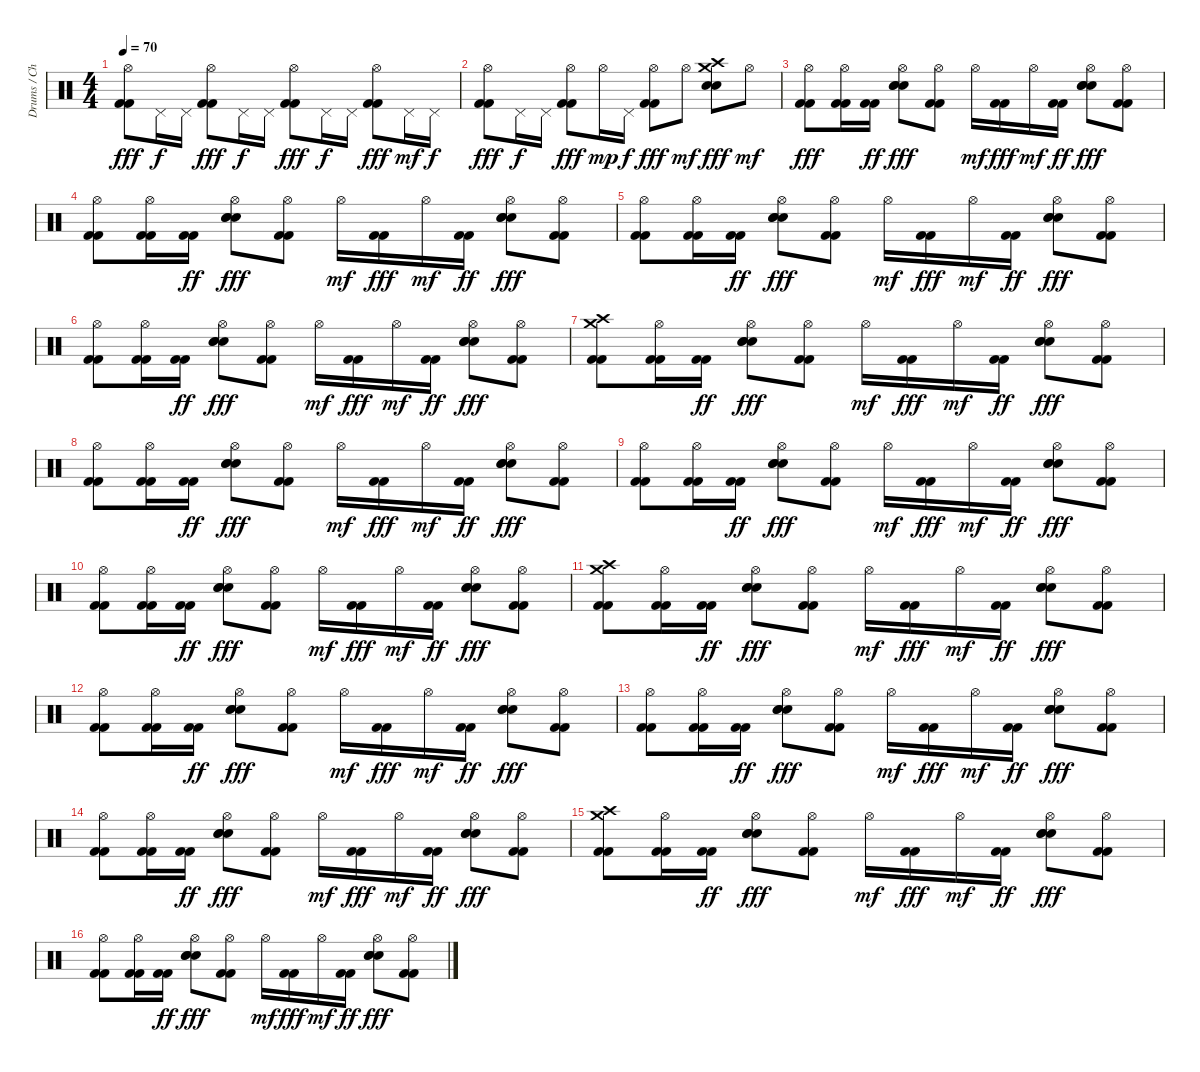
\track ("Drums / Christoph Schneider" "Drums / Ch") {instrument percussion}
\staff {score}
\articulation defaults
\ts (4 4)
\tempo 70
\clef neutral
\ks c
("Hi-Hat (open)" "Kick (hit) 2" "Kick (hit) 2").8{dy fff} "Pedal Hi-Hat (hit)".16{dy f} "Pedal Hi-Hat (hit)".16 ("Hi-Hat (open)" "Kick (hit) 2" "Kick (hit) 2").8{dy fff} "Pedal Hi-Hat (hit)".16{dy f} "Pedal Hi-Hat (hit)".16 ("Hi-Hat (open)" "Kick (hit) 2" "Kick (hit) 2").8{dy fff} "Pedal Hi-Hat (hit)".16{dy f} "Pedal Hi-Hat (hit)".16 ("Hi-Hat (open)" "Kick (hit) 2" "Kick (hit) 2").8{dy fff} "Pedal Hi-Hat (hit)".16{dy mf} "Pedal Hi-Hat (hit)".16{dy f} |
("Hi-Hat (open)" "Kick (hit) 2" "Kick (hit) 2").8{dy fff} "Pedal Hi-Hat (hit)".16{dy f} "Pedal Hi-Hat (hit)".16 ("Hi-Hat (open)" "Kick (hit) 2" "Kick (hit) 2").8{dy fff} "Hi-Hat (open)".16{dy mp} "Pedal Hi-Hat (hit)".16{dy f} ("Hi-Hat (open)" "Kick (hit) 2" "Kick (hit) 2").8{dy fff} "Hi-Hat (open)".8{dy mf} ("Crash medium (hit)" "Crash high (hit)" "Snare (hit) 2" "Snare (hit) 2").8{dy fff} "Hi-Hat (open)".8{dy mf} |
("Hi-Hat (open)" "Kick (hit) 2" "Kick (hit) 2").8{dy fff} ("Hi-Hat (open)" "Kick (hit) 2" "Kick (hit) 2").16 ("Kick (hit) 2" "Kick (hit) 2").16{dy ff} ("Hi-Hat (open)" "Snare (hit) 2" "Snare (hit) 2" "Snare (hit) 2").8{dy fff} ("Hi-Hat (open)" "Kick (hit) 2" "Kick (hit) 2").8 "Hi-Hat (open)".16{dy mf} ("Kick (hit) 2" "Kick (hit) 2").16{dy fff} "Hi-Hat (open)".16{dy mf} ("Kick (hit) 2" "Kick (hit) 2").16{dy ff} ("Hi-Hat (open)" "Snare (hit) 2" "Snare (hit) 2" "Snare (hit) 2").8{dy fff} ("Hi-Hat (open)" "Kick (hit) 2" "Kick (hit) 2").8 |
("Hi-Hat (open)" "Kick (hit) 2" "Kick (hit) 2").8 ("Hi-Hat (open)" "Kick (hit) 2" "Kick (hit) 2").16 ("Kick (hit) 2" "Kick (hit) 2").16{dy ff} ("Hi-Hat (open)" "Snare (hit) 2" "Snare (hit) 2" "Snare (hit) 2").8{dy fff} ("Hi-Hat (open)" "Kick (hit) 2" "Kick (hit) 2").8 "Hi-Hat (open)".16{dy mf} ("Kick (hit) 2" "Kick (hit) 2").16{dy fff} "Hi-Hat (open)".16{dy mf} ("Kick (hit) 2" "Kick (hit) 2").16{dy ff} ("Hi-Hat (open)" "Snare (hit) 2" "Snare (hit) 2" "Snare (hit) 2").8{dy fff} ("Hi-Hat (open)" "Kick (hit) 2" "Kick (hit) 2").8 |
("Hi-Hat (open)" "Kick (hit) 2" "Kick (hit) 2").8 ("Hi-Hat (open)" "Kick (hit) 2" "Kick (hit) 2").16 ("Kick (hit) 2" "Kick (hit) 2").16{dy ff} ("Hi-Hat (open)" "Snare (hit) 2" "Snare (hit) 2" "Snare (hit) 2").8{dy fff} ("Hi-Hat (open)" "Kick (hit) 2" "Kick (hit) 2").8 "Hi-Hat (open)".16{dy mf} ("Kick (hit) 2" "Kick (hit) 2").16{dy fff} "Hi-Hat (open)".16{dy mf} ("Kick (hit) 2" "Kick (hit) 2").16{dy ff} ("Hi-Hat (open)" "Snare (hit) 2" "Snare (hit) 2" "Snare (hit) 2").8{dy fff} ("Hi-Hat (open)" "Kick (hit) 2" "Kick (hit) 2").8 |
("Hi-Hat (open)" "Kick (hit) 2" "Kick (hit) 2").8 ("Hi-Hat (open)" "Kick (hit) 2" "Kick (hit) 2").16 ("Kick (hit) 2" "Kick (hit) 2").16{dy ff} ("Hi-Hat (open)" "Snare (hit) 2" "Snare (hit) 2" "Snare (hit) 2").8{dy fff} ("Hi-Hat (open)" "Kick (hit) 2" "Kick (hit) 2").8 "Hi-Hat (open)".16{dy mf} ("Kick (hit) 2" "Kick (hit) 2").16{dy fff} "Hi-Hat (open)".16{dy mf} ("Kick (hit) 2" "Kick (hit) 2").16{dy ff} ("Hi-Hat (open)" "Snare (hit) 2" "Snare (hit) 2" "Snare (hit) 2").8{dy fff} ("Hi-Hat (open)" "Kick (hit) 2" "Kick (hit) 2").8 |
("Crash medium (hit)" "Crash high (hit)" "Kick (hit) 2" "Kick (hit) 2").8 ("Hi-Hat (open)" "Kick (hit) 2" "Kick (hit) 2").16 ("Kick (hit) 2" "Kick (hit) 2").16{dy ff} ("Hi-Hat (open)" "Snare (hit) 2" "Snare (hit) 2" "Snare (hit) 2").8{dy fff} ("Hi-Hat (open)" "Kick (hit) 2" "Kick (hit) 2").8 "Hi-Hat (open)".16{dy mf} ("Kick (hit) 2" "Kick (hit) 2").16{dy fff} "Hi-Hat (open)".16{dy mf} ("Kick (hit) 2" "Kick (hit) 2").16{dy ff} ("Hi-Hat (open)" "Snare (hit) 2" "Snare (hit) 2" "Snare (hit) 2").8{dy fff} ("Hi-Hat (open)" "Kick (hit) 2" "Kick (hit) 2").8 |
("Hi-Hat (open)" "Kick (hit) 2" "Kick (hit) 2").8 ("Hi-Hat (open)" "Kick (hit) 2" "Kick (hit) 2").16 ("Kick (hit) 2" "Kick (hit) 2").16{dy ff} ("Hi-Hat (open)" "Snare (hit) 2" "Snare (hit) 2" "Snare (hit) 2").8{dy fff} ("Hi-Hat (open)" "Kick (hit) 2" "Kick (hit) 2").8 "Hi-Hat (open)".16{dy mf} ("Kick (hit) 2" "Kick (hit) 2").16{dy fff} "Hi-Hat (open)".16{dy mf} ("Kick (hit) 2" "Kick (hit) 2").16{dy ff} ("Hi-Hat (open)" "Snare (hit) 2" "Snare (hit) 2" "Snare (hit) 2").8{dy fff} ("Hi-Hat (open)" "Kick (hit) 2" "Kick (hit) 2").8 |
("Hi-Hat (open)" "Kick (hit) 2" "Kick (hit) 2").8 ("Hi-Hat (open)" "Kick (hit) 2" "Kick (hit) 2").16 ("Kick (hit) 2" "Kick (hit) 2").16{dy ff} ("Hi-Hat (open)" "Snare (hit) 2" "Snare (hit) 2" "Snare (hit) 2").8{dy fff} ("Hi-Hat (open)" "Kick (hit) 2" "Kick (hit) 2").8 "Hi-Hat (open)".16{dy mf} ("Kick (hit) 2" "Kick (hit) 2").16{dy fff} "Hi-Hat (open)".16{dy mf} ("Kick (hit) 2" "Kick (hit) 2").16{dy ff} ("Hi-Hat (open)" "Snare (hit) 2" "Snare (hit) 2" "Snare (hit) 2").8{dy fff} ("Hi-Hat (open)" "Kick (hit) 2" "Kick (hit) 2").8 |
("Hi-Hat (open)" "Kick (hit) 2" "Kick (hit) 2").8 ("Hi-Hat (open)" "Kick (hit) 2" "Kick (hit) 2").16 ("Kick (hit) 2" "Kick (hit) 2").16{dy ff} ("Hi-Hat (open)" "Snare (hit) 2" "Snare (hit) 2" "Snare (hit) 2").8{dy fff} ("Hi-Hat (open)" "Kick (hit) 2" "Kick (hit) 2").8 "Hi-Hat (open)".16{dy mf} ("Kick (hit) 2" "Kick (hit) 2").16{dy fff} "Hi-Hat (open)".16{dy mf} ("Kick (hit) 2" "Kick (hit) 2").16{dy ff} ("Hi-Hat (open)" "Snare (hit) 2" "Snare (hit) 2" "Snare (hit) 2").8{dy fff} ("Hi-Hat (open)" "Kick (hit) 2" "Kick (hit) 2").8 |
("Crash medium (hit)" "Crash high (hit)" "Kick (hit) 2" "Kick (hit) 2").8 ("Hi-Hat (open)" "Kick (hit) 2" "Kick (hit) 2").16 ("Kick (hit) 2" "Kick (hit) 2").16{dy ff} ("Hi-Hat (open)" "Snare (hit) 2" "Snare (hit) 2" "Snare (hit) 2").8{dy fff} ("Hi-Hat (open)" "Kick (hit) 2" "Kick (hit) 2").8 "Hi-Hat (open)".16{dy mf} ("Kick (hit) 2" "Kick (hit) 2").16{dy fff} "Hi-Hat (open)".16{dy mf} ("Kick (hit) 2" "Kick (hit) 2").16{dy ff} ("Hi-Hat (open)" "Snare (hit) 2" "Snare (hit) 2" "Snare (hit) 2").8{dy fff} ("Hi-Hat (open)" "Kick (hit) 2" "Kick (hit) 2").8 |
("Hi-Hat (open)" "Kick (hit) 2" "Kick (hit) 2").8 ("Hi-Hat (open)" "Kick (hit) 2" "Kick (hit) 2").16 ("Kick (hit) 2" "Kick (hit) 2").16{dy ff} ("Hi-Hat (open)" "Snare (hit) 2" "Snare (hit) 2" "Snare (hit) 2").8{dy fff} ("Hi-Hat (open)" "Kick (hit) 2" "Kick (hit) 2").8 "Hi-Hat (open)".16{dy mf} ("Kick (hit) 2" "Kick (hit) 2").16{dy fff} "Hi-Hat (open)".16{dy mf} ("Kick (hit) 2" "Kick (hit) 2").16{dy ff} ("Hi-Hat (open)" "Snare (hit) 2" "Snare (hit) 2" "Snare (hit) 2").8{dy fff} ("Hi-Hat (open)" "Kick (hit) 2" "Kick (hit) 2").8 |
("Hi-Hat (open)" "Kick (hit) 2" "Kick (hit) 2").8 ("Hi-Hat (open)" "Kick (hit) 2" "Kick (hit) 2").16 ("Kick (hit) 2" "Kick (hit) 2").16{dy ff} ("Hi-Hat (open)" "Snare (hit) 2" "Snare (hit) 2" "Snare (hit) 2").8{dy fff} ("Hi-Hat (open)" "Kick (hit) 2" "Kick (hit) 2").8 "Hi-Hat (open)".16{dy mf} ("Kick (hit) 2" "Kick (hit) 2").16{dy fff} "Hi-Hat (open)".16{dy mf} ("Kick (hit) 2" "Kick (hit) 2").16{dy ff} ("Hi-Hat (open)" "Snare (hit) 2" "Snare (hit) 2" "Snare (hit) 2").8{dy fff} ("Hi-Hat (open)" "Kick (hit) 2" "Kick (hit) 2").8 |
("Hi-Hat (open)" "Kick (hit) 2" "Kick (hit) 2").8 ("Hi-Hat (open)" "Kick (hit) 2" "Kick (hit) 2").16 ("Kick (hit) 2" "Kick (hit) 2").16{dy ff} ("Hi-Hat (open)" "Snare (hit) 2" "Snare (hit) 2" "Snare (hit) 2").8{dy fff} ("Hi-Hat (open)" "Kick (hit) 2" "Kick (hit) 2").8 "Hi-Hat (open)".16{dy mf} ("Kick (hit) 2" "Kick (hit) 2").16{dy fff} "Hi-Hat (open)".16{dy mf} ("Kick (hit) 2" "Kick (hit) 2").16{dy ff} ("Hi-Hat (open)" "Snare (hit) 2" "Snare (hit) 2" "Snare (hit) 2").8{dy fff} ("Hi-Hat (open)" "Kick (hit) 2" "Kick (hit) 2").8 |
("Crash medium (hit)" "Crash high (hit)" "Kick (hit) 2" "Kick (hit) 2").8 ("Hi-Hat (open)" "Kick (hit) 2" "Kick (hit) 2").16 ("Kick (hit) 2" "Kick (hit) 2").16{dy ff} ("Hi-Hat (open)" "Snare (hit) 2" "Snare (hit) 2" "Snare (hit) 2").8{dy fff} ("Hi-Hat (open)" "Kick (hit) 2" "Kick (hit) 2").8 "Hi-Hat (open)".16{dy mf} ("Kick (hit) 2" "Kick (hit) 2").16{dy fff} "Hi-Hat (open)".16{dy mf} ("Kick (hit) 2" "Kick (hit) 2").16{dy ff} ("Hi-Hat (open)" "Snare (hit) 2" "Snare (hit) 2" "Snare (hit) 2").8{dy fff} ("Hi-Hat (open)" "Kick (hit) 2" "Kick (hit) 2").8 |
("Hi-Hat (open)" "Kick (hit) 2" "Kick (hit) 2").8 ("Hi-Hat (open)" "Kick (hit) 2" "Kick (hit) 2").16 ("Kick (hit) 2" "Kick (hit) 2").16{dy ff} ("Hi-Hat (open)" "Snare (hit) 2" "Snare (hit) 2" "Snare (hit) 2").8{dy fff} ("Hi-Hat (open)" "Kick (hit) 2" "Kick (hit) 2").8 "Hi-Hat (open)".16{dy mf} ("Kick (hit) 2" "Kick (hit) 2").16{dy fff} "Hi-Hat (open)".16{dy mf} ("Kick (hit) 2" "Kick (hit) 2").16{dy ff} ("Hi-Hat (open)" "Snare (hit) 2" "Snare (hit) 2" "Snare (hit) 2").8{dy fff} ("Hi-Hat (open)" "Kick (hit) 2" "Kick (hit) 2").8
